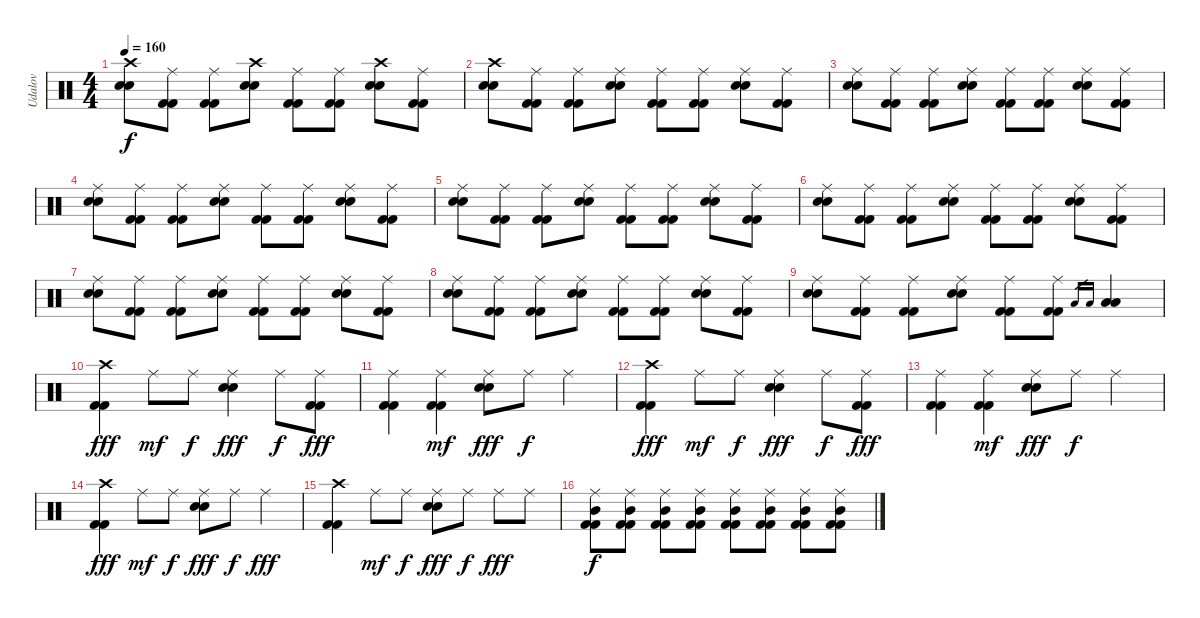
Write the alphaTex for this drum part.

\track ("Udalov" "Udalov") {instrument percussion}
\staff {score}
\articulation defaults
\ts (4 4)
\tempo 160
\clef neutral
\ks c
("Crash high (hit)" "Electric Snare (hit)" "Electric Snare (hit)").8{dy f} ("Ride (middle)" "Kick (hit) 2" "Kick (hit) 2").8 ("Ride (middle)" "Kick (hit) 2" "Kick (hit) 2").8 ("Crash high (hit)" "Electric Snare (hit)" "Electric Snare (hit)").8 ("Ride (middle)" "Kick (hit) 2" "Kick (hit) 2").8 ("Ride (middle)" "Kick (hit) 2" "Kick (hit) 2").8 ("Crash high (hit)" "Electric Snare (hit)" "Electric Snare (hit)").8 ("Ride (middle)" "Kick (hit) 2" "Kick (hit) 2").8 |
("Crash high (hit)" "Electric Snare (hit)" "Electric Snare (hit)").8 ("Ride (middle)" "Kick (hit) 2" "Kick (hit) 2").8 ("Ride (middle)" "Kick (hit) 2" "Kick (hit) 2").8 ("Ride (middle)" "Electric Snare (hit)" "Electric Snare (hit)").8 ("Ride (middle)" "Kick (hit) 2" "Kick (hit) 2").8 ("Ride (middle)" "Kick (hit) 2" "Kick (hit) 2").8 ("Ride (middle)" "Electric Snare (hit)" "Electric Snare (hit)").8 ("Ride (middle)" "Kick (hit) 2" "Kick (hit) 2").8 |
("Ride (middle)" "Electric Snare (hit)" "Electric Snare (hit)").8 ("Ride (middle)" "Kick (hit) 2" "Kick (hit) 2").8 ("Ride (middle)" "Kick (hit) 2" "Kick (hit) 2").8 ("Ride (middle)" "Electric Snare (hit)" "Electric Snare (hit)").8 ("Ride (middle)" "Kick (hit) 2" "Kick (hit) 2").8 ("Ride (middle)" "Kick (hit) 2" "Kick (hit) 2").8 ("Ride (middle)" "Electric Snare (hit)" "Electric Snare (hit)").8 ("Ride (middle)" "Kick (hit) 2" "Kick (hit) 2").8 |
("Ride (middle)" "Electric Snare (hit)" "Electric Snare (hit)").8 ("Ride (middle)" "Kick (hit) 2" "Kick (hit) 2").8 ("Ride (middle)" "Kick (hit) 2" "Kick (hit) 2").8 ("Ride (middle)" "Electric Snare (hit)" "Electric Snare (hit)").8 ("Ride (middle)" "Kick (hit) 2" "Kick (hit) 2").8 ("Ride (middle)" "Kick (hit) 2" "Kick (hit) 2").8 ("Ride (middle)" "Electric Snare (hit)" "Electric Snare (hit)").8 ("Ride (middle)" "Kick (hit) 2" "Kick (hit) 2").8 |
("Ride (middle)" "Electric Snare (hit)" "Electric Snare (hit)").8 ("Ride (middle)" "Kick (hit) 2" "Kick (hit) 2").8 ("Ride (middle)" "Kick (hit) 2" "Kick (hit) 2").8 ("Ride (middle)" "Electric Snare (hit)" "Electric Snare (hit)").8 ("Ride (middle)" "Kick (hit) 2" "Kick (hit) 2").8 ("Ride (middle)" "Kick (hit) 2" "Kick (hit) 2").8 ("Ride (middle)" "Electric Snare (hit)" "Electric Snare (hit)").8 ("Ride (middle)" "Kick (hit) 2" "Kick (hit) 2").8 |
("Ride (middle)" "Electric Snare (hit)" "Electric Snare (hit)").8 ("Ride (middle)" "Kick (hit) 2" "Kick (hit) 2").8 ("Ride (middle)" "Kick (hit) 2" "Kick (hit) 2").8 ("Ride (middle)" "Electric Snare (hit)" "Electric Snare (hit)").8 ("Ride (middle)" "Kick (hit) 2" "Kick (hit) 2").8 ("Ride (middle)" "Kick (hit) 2" "Kick (hit) 2").8 ("Ride (middle)" "Electric Snare (hit)" "Electric Snare (hit)").8 ("Ride (middle)" "Kick (hit) 2" "Kick (hit) 2").8 |
("Ride (middle)" "Electric Snare (hit)" "Electric Snare (hit)").8 ("Ride (middle)" "Kick (hit) 2" "Kick (hit) 2").8 ("Ride (middle)" "Kick (hit) 2" "Kick (hit) 2").8 ("Ride (middle)" "Electric Snare (hit)" "Electric Snare (hit)").8 ("Ride (middle)" "Kick (hit) 2" "Kick (hit) 2").8 ("Ride (middle)" "Kick (hit) 2" "Kick (hit) 2").8 ("Ride (middle)" "Electric Snare (hit)" "Electric Snare (hit)").8 ("Ride (middle)" "Kick (hit) 2" "Kick (hit) 2").8 |
("Ride (middle)" "Electric Snare (hit)" "Electric Snare (hit)").8 ("Ride (middle)" "Kick (hit) 2" "Kick (hit) 2").8 ("Ride (middle)" "Kick (hit) 2" "Kick (hit) 2").8 ("Ride (middle)" "Electric Snare (hit)" "Electric Snare (hit)").8 ("Ride (middle)" "Kick (hit) 2" "Kick (hit) 2").8 ("Ride (middle)" "Kick (hit) 2" "Kick (hit) 2").8 ("Ride (middle)" "Electric Snare (hit)" "Electric Snare (hit)").8 ("Ride (middle)" "Kick (hit) 2" "Kick (hit) 2").8 |
("Ride (middle)" "Electric Snare (hit)" "Electric Snare (hit)").8 ("Ride (middle)" "Kick (hit) 2" "Kick (hit) 2").8 ("Ride (middle)" "Kick (hit) 2" "Kick (hit) 2").8 ("Ride (middle)" "Electric Snare (hit)" "Electric Snare (hit)").8 ("Ride (middle)" "Kick (hit) 2" "Kick (hit) 2").8 ("Ride (middle)" "Kick (hit) 2" "Kick (hit) 2").8 "Low Tom (hit)".16{gr} "Low Tom (hit)".16{gr} ("Low Tom (hit)" "Low Tom (hit)").4 |
("Crash high (hit)" "Kick (hit) 2" "Kick (hit) 2").4{dy fff} "Ride (middle)".8{dy mf} "Ride (middle)".8{dy f} ("Ride (middle)" "Electric Snare (hit)" "Electric Snare (hit)").4{dy fff} "Ride (middle)".8{dy f} ("Ride (middle)" "Kick (hit) 2" "Kick (hit) 2").8{dy fff} |
("Ride (middle)" "Kick (hit) 2" "Kick (hit) 2").4 ("Ride (middle)" "Kick (hit) 2" "Kick (hit) 2").4{dy mf} ("Ride (middle)" "Electric Snare (hit)" "Electric Snare (hit)").8{dy fff} "Ride (middle)".8{dy f} "Ride (middle)".4 |
("Crash high (hit)" "Kick (hit) 2" "Kick (hit) 2").4{dy fff} "Ride (middle)".8{dy mf} "Ride (middle)".8{dy f} ("Ride (middle)" "Electric Snare (hit)" "Electric Snare (hit)").4{dy fff} "Ride (middle)".8{dy f} ("Ride (middle)" "Kick (hit) 2" "Kick (hit) 2").8{dy fff} |
("Ride (middle)" "Kick (hit) 2" "Kick (hit) 2").4 ("Ride (middle)" "Kick (hit) 2" "Kick (hit) 2").4{dy mf} ("Ride (middle)" "Electric Snare (hit)" "Electric Snare (hit)").8{dy fff} "Ride (middle)".8{dy f} "Ride (middle)".4 |
("Crash high (hit)" "Kick (hit) 2" "Kick (hit) 2").4{dy fff} "Ride (middle)".8{dy mf} "Ride (middle)".8{dy f} ("Ride (middle)" "Electric Snare (hit)" "Electric Snare (hit)").8{dy fff} "Ride (middle)".8{dy f} "Ride (middle)".4{dy fff} |
("Crash high (hit)" "Kick (hit) 2" "Kick (hit) 2").4 "Ride (middle)".8{dy mf} "Ride (middle)".8{dy f} ("Ride (middle)" "Electric Snare (hit)" "Electric Snare (hit)").8{dy fff} "Ride (middle)".8{dy f} "Ride (middle)".8{dy fff} "Ride (middle)".8 |
("Ride (middle)" "Mid Tom (hit)" "Kick (hit) 2" "Kick (hit) 2").8{dy f} ("Ride (middle)" "Mid Tom (hit)" "Kick (hit) 2" "Kick (hit) 2").8 ("Ride (middle)" "Mid Tom (hit)" "Kick (hit) 2" "Kick (hit) 2").8 ("Ride (middle)" "Mid Tom (hit)" "Kick (hit) 2" "Kick (hit) 2").8 ("Ride (middle)" "Mid Tom (hit)" "Kick (hit) 2" "Kick (hit) 2").8 ("Ride (middle)" "Mid Tom (hit)" "Kick (hit) 2" "Kick (hit) 2").8 ("Ride (middle)" "Mid Tom (hit)" "Kick (hit) 2" "Kick (hit) 2").8 ("Ride (middle)" "Mid Tom (hit)" "Kick (hit) 2" "Kick (hit) 2").8
